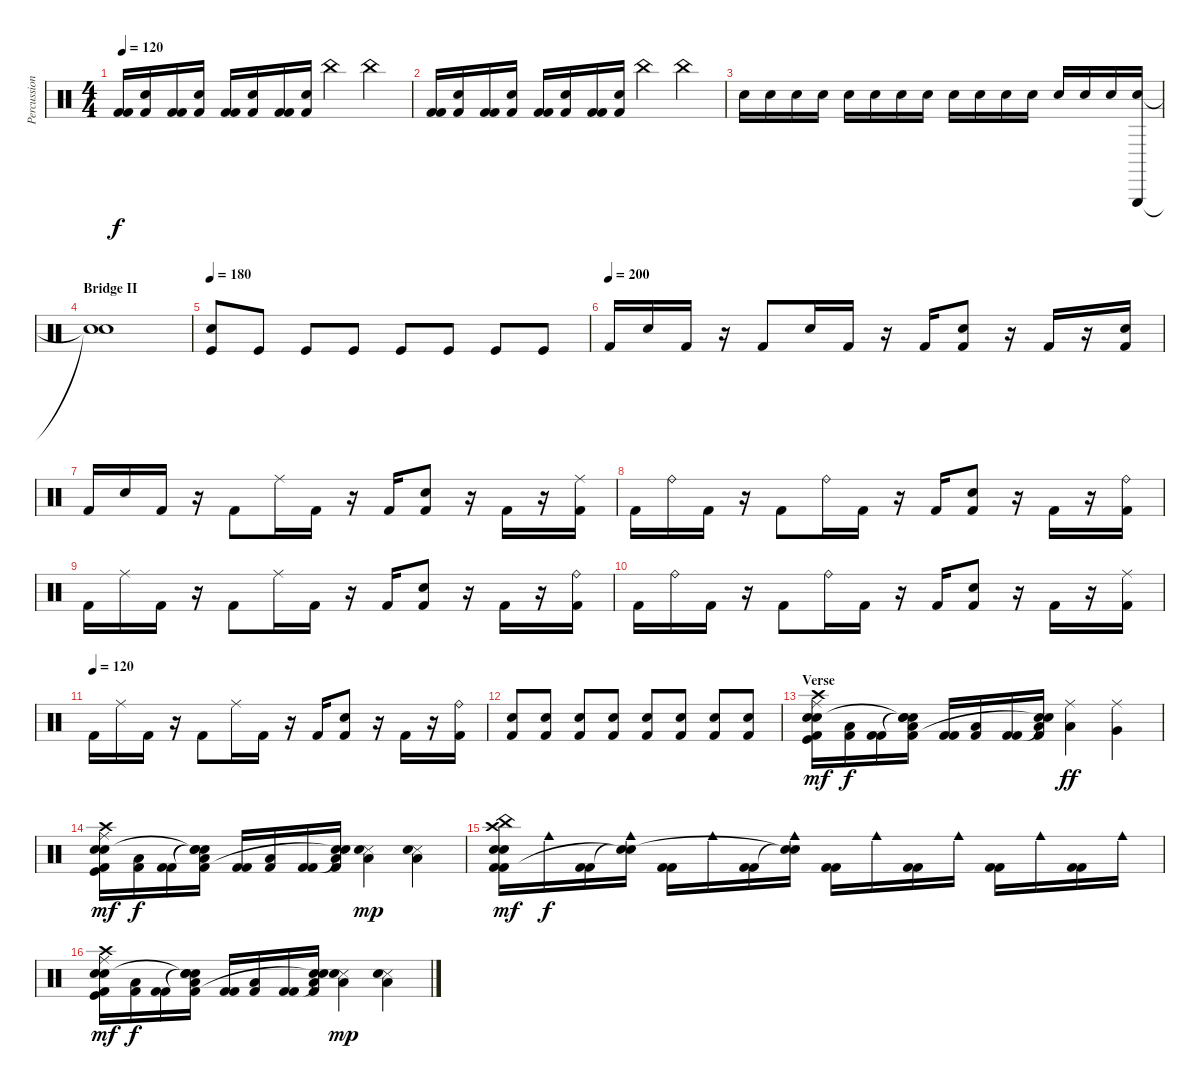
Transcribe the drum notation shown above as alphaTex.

\track ("Percussions" "Percussion") {instrument percussion}
\staff {score}
\articulation defaults
\ts (4 4)
\tempo 120
\clef neutral
\ks c
("Kick (hit) 2" "Kick (hit) 2").16{dy f} ("Snare (hit) 2" "Kick (hit) 2").16 ("Kick (hit) 2" "Kick (hit) 2").16 ("Snare (hit) 2" "Kick (hit) 2").16 ("Kick (hit) 2" "Kick (hit) 2").16 ("Snare (hit) 2" "Kick (hit) 2").16 ("Kick (hit) 2" "Kick (hit) 2").16 ("Snare (hit) 2" "Kick (hit) 2").16 "China (hit)".4 "China (hit)".4 |
("Kick (hit) 2" "Kick (hit) 2").16 ("Snare (hit) 2" "Kick (hit) 2").16 ("Kick (hit) 2" "Kick (hit) 2").16 ("Snare (hit) 2" "Kick (hit) 2").16 ("Kick (hit) 2" "Kick (hit) 2").16 ("Snare (hit) 2" "Kick (hit) 2").16 ("Kick (hit) 2" "Kick (hit) 2").16 ("Snare (hit) 2" "Kick (hit) 2").16 "China (hit)".4 "China (hit)".4 |
"Electric Snare (hit)".16 "Electric Snare (hit)".16 "Electric Snare (hit)".16 "Electric Snare (hit)".16 "Electric Snare (hit)".16 "Electric Snare (hit)".16 "Electric Snare (hit)".16 "Electric Snare (hit)".16 "Snare (hit) 2".16 "Snare (hit) 2".16 "Snare (hit) 2".16 "Snare (hit) 2".16 "Snare (hit) 2".16 "Snare (hit) 2".16 "Snare (hit) 2".16 ("Triangle (hit)" "Snare (hit) 2").16 |
\section ("" "Bridge II")
("Snare (hit)"{t} "Snare (hit)"{t}).1 |
\tempo 180
("Snare (hit)"{x} "Kick (hit)").8 "Kick (hit)".8 "Kick (hit)".8 "Kick (hit)".8 "Kick (hit)".8 "Kick (hit)".8 "Kick (hit)".8 "Kick (hit)".8 |
\tempo (200)
"Kick (hit) 2".16 "Electric Snare (hit)".16 "Kick (hit) 2".16 r.16 "Kick (hit) 2".8 "Electric Snare (hit)".16 "Kick (hit) 2".16 r.16 "Kick (hit) 2".16 ("Electric Snare (hit)" "Kick (hit) 2").8 r.16 "Kick (hit) 2".16 r.16 ("Electric Snare (hit)" "Kick (hit) 2").16 |
"Kick (hit) 2".16 "Electric Snare (hit)".16 "Kick (hit) 2".16 r.16 "Kick (hit) 2".8 "Ride (middle)".16 "Kick (hit) 2".16 r.16 "Kick (hit) 2".16 ("Electric Snare (hit)" "Kick (hit) 2").8 r.16 "Kick (hit) 2".16 r.16 ("Ride (middle)" "Kick (hit) 2").16 |
"Kick (hit) 2".16 "Ride (bell)".16 "Kick (hit) 2".16 r.16 "Kick (hit) 2".8 "Ride (bell)".16 "Kick (hit) 2".16 r.16 "Kick (hit) 2".16 ("Electric Snare (hit)" "Kick (hit) 2").8 r.16 "Kick (hit) 2".16 r.16 ("Ride (bell)" "Kick (hit) 2").16 |
"Kick (hit) 2".16 "Ride (middle)".16 "Kick (hit) 2".16 r.16 "Kick (hit) 2".8 "Ride (middle)".16 "Kick (hit) 2".16 r.16 "Kick (hit) 2".16 ("Electric Snare (hit)" "Kick (hit) 2").8 r.16 "Kick (hit) 2".16 r.16 ("Ride (bell)" "Kick (hit) 2").16 |
"Kick (hit) 2".16 "Ride (bell)".16 "Kick (hit) 2".16 r.16 "Kick (hit) 2".8 "Ride (bell)".16 "Kick (hit) 2".16 r.16 "Kick (hit) 2".16 ("Electric Snare (hit)" "Kick (hit) 2").8 r.16 "Kick (hit) 2".16 r.16 ("Ride (middle)" "Kick (hit) 2").16 |
\tempo (120)
"Kick (hit) 2".16 "Ride (middle)".16 "Kick (hit) 2".16 r.16 "Kick (hit) 2".8 "Ride (middle)".16 "Kick (hit) 2".16 r.16 "Kick (hit) 2".16 ("Electric Snare (hit)" "Kick (hit) 2").8 r.16 "Kick (hit) 2".16 r.16 ("Ride (bell)" "Kick (hit) 2").16 |
("Electric Snare (hit)" "Kick (hit) 2").8 ("Electric Snare (hit)" "Kick (hit) 2").8 ("Electric Snare (hit)" "Kick (hit) 2").8 ("Electric Snare (hit)" "Kick (hit) 2").8 ("Electric Snare (hit)" "Kick (hit) 2").8 ("Electric Snare (hit)" "Kick (hit) 2").8 ("Electric Snare (hit)" "Kick (hit) 2").8 ("Electric Snare (hit)" "Kick (hit) 2").8 |
\section ("" "Verse")
("Crash high (hit)" "Electric Snare (hit)" "Kick (hit)" "Kick (hit) 2" "Electric Snare (hit)" "Ride (middle)").16{dy mf} ("Low Floor Tom (hit)" "Kick (hit) 2").16{dy f} ("Kick (hit) 2" "Kick (hit) 2").16 ("Snare (hit)"{t} "Snare (hit)"{t} "Low Floor Tom (hit)" "Kick (hit) 2" "Snare (hit)"{t}).16 ("Kick (hit) 2" "Kick (hit) 2").16 ("Low Floor Tom (hit)" "Kick (hit) 2").16 ("Kick (hit) 2" "Kick (hit) 2").16 ("Snare (hit)"{t} "Low Floor Tom (hit)" "Kick (hit) 2" "Snare (hit)"{t}).16 ("Ride (middle)" "Low Tom (hit)").4{dy ff} ("Ride (middle)" "Very Low Tom (hit)").4 |
("Crash high (hit)" "Electric Snare (hit)" "Kick (hit)" "Kick (hit) 2" "Electric Snare (hit)" "Ride (middle)").16{dy mf} ("Low Floor Tom (hit)" "Kick (hit) 2").16{dy f} ("Kick (hit) 2" "Kick (hit) 2").16 ("Snare (hit)"{t} "Snare (hit)"{t} "Low Floor Tom (hit)" "Kick (hit) 2" "Snare (hit)"{t}).16 ("Kick (hit) 2" "Kick (hit) 2").16 ("Low Floor Tom (hit)" "Kick (hit) 2").16 ("Kick (hit) 2" "Kick (hit) 2").16 ("Snare (hit)"{t} "Low Floor Tom (hit)" "Kick (hit) 2" "Snare (hit)"{t}).16 ("Snare (side stick) 3" "Snare (hit) 2" "Low Floor Tom (hit)").4{dy mp} ("Snare (side stick) 3" "Snare (hit) 2" "Low Floor Tom (hit)").4 |
("Crash high (hit)" "Electric Snare (hit)" "Kick (hit) 2" "Kick (hit) 2" "Electric Snare (hit)" "China (hit)").16{dy mf} "Cowbell medium (hit)".16{dy f} ("Kick (hit) 2" "Kick (hit) 2").16 ("Snare (hit)"{t} "Cowbell medium (hit)" "Snare (hit)"{t}).16 ("Kick (hit) 2" "Kick (hit) 2").16 "Cowbell medium (hit)".16 ("Kick (hit) 2" "Kick (hit) 2").16 ("Snare (hit)"{t} "Cowbell medium (hit)" "Snare (hit)"{t}).16 ("Kick (hit) 2" "Kick (hit) 2").16 "Cowbell medium (hit)".16 ("Kick (hit) 2" "Kick (hit) 2").16 "Cowbell medium (hit)".16 ("Kick (hit) 2" "Kick (hit) 2").16 "Cowbell medium (hit)".16 ("Kick (hit) 2" "Kick (hit) 2").16 "Cowbell medium (hit)".16 |
("Crash high (hit)" "Electric Snare (hit)" "Kick (hit)" "Kick (hit) 2" "Electric Snare (hit)" "Ride (middle)").16{dy mf} ("Low Floor Tom (hit)" "Kick (hit) 2").16{dy f} ("Kick (hit) 2" "Kick (hit) 2").16 ("Snare (hit)"{t} "Snare (hit)"{t} "Low Floor Tom (hit)" "Kick (hit) 2" "Snare (hit)"{t}).16 ("Kick (hit) 2" "Kick (hit) 2").16 ("Low Floor Tom (hit)" "Kick (hit) 2").16 ("Kick (hit) 2" "Kick (hit) 2").16 ("Snare (hit)"{t} "Low Floor Tom (hit)" "Kick (hit) 2" "Snare (hit)"{t}).16 ("Snare (side stick) 3" "Snare (hit) 2" "Low Floor Tom (hit)").4{dy mp} ("Snare (side stick) 3" "Snare (hit) 2" "Low Floor Tom (hit)").4
